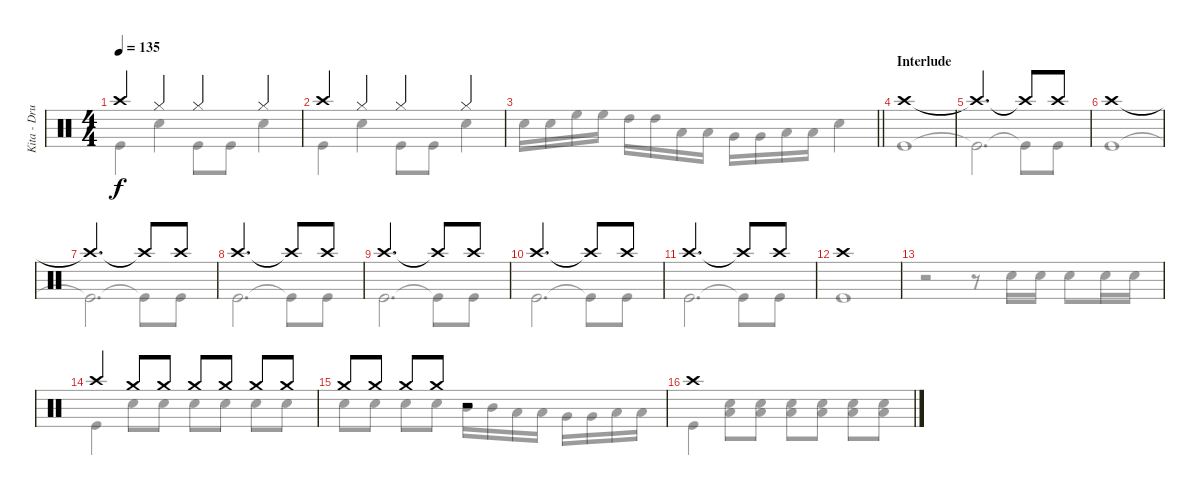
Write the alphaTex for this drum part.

\track ("Kita - Drums" "Kita - Dru") {instrument percussion}
\staff {score}
\articulation defaults
\voice
\ts (4 4)
\tempo 135
\clef neutral
\ks c "Crash high (hit)".4{dy f} "Hi-Hat (closed)".4 "Hi-Hat (closed)".4 "Hi-Hat (closed)".4
|
"Crash high (hit)".4 "Hi-Hat (closed)".4 "Hi-Hat (closed)".4 "Hi-Hat (closed)".4 |
\barLineRight lightlight
|
\section ("" "Interlude")
"Crash high (hit)".1 |
"Crash high (hit)"{t}.2{d} "Crash high (hit)"{t}.8 "Crash high (hit)".8 |
"Crash high (hit)".1 |
"Crash high (hit)"{t}.2{d} "Crash high (hit)"{t}.8 "Crash high (hit)".8 |
"Crash high (hit)".2{d} "Crash high (hit)"{t}.8 "Crash high (hit)".8 |
"Crash high (hit)".2{d} "Crash high (hit)"{t}.8 "Crash high (hit)".8 |
"Crash high (hit)".2{d} "Crash high (hit)"{t}.8 "Crash high (hit)".8 |
"Crash high (hit)".2{d} "Crash high (hit)"{t}.8 "Crash high (hit)".8 |
"Crash high (hit)".1 |
|
"Crash high (hit)".4 "Crash medium (hit)".8{volume 7} "Crash medium (hit)".8{volume 13} "Crash medium (hit)".8 "Crash medium (hit)".8 "Crash medium (hit)".8 "Crash medium (hit)".8 |
"Crash medium (hit)".8 "Crash medium (hit)".8 "Crash medium (hit)".8 "Crash medium (hit)".8 r.2{volume 8} |
"Crash high (hit)".1{volume 13}
\voice
\clef neutral
\ottava regular
\simile none
\ks c "Kick (hit)".4{dy f} "Snare (hit) 2".4 "Kick (hit)".8 "Kick (hit)".8 "Snare (hit) 2".4
|
"Kick (hit)".4 "Snare (hit) 2".4 "Kick (hit)".8 "Kick (hit)".8 "Snare (hit) 2".4 |
\barLineRight lightlight "Snare (hit) 2".16 "Snare (hit) 2".16 "High Floor Tom (hit)".16 "High Floor Tom (hit)".16 "High Tom (hit)".16 "High Tom (hit)".16 "Low Tom (hit)".16 "Low Tom (hit)".16 "Very Low Tom (hit)".16 "Very Low Tom (hit)".16 "Low Floor Tom (hit)".16 "Low Floor Tom (hit)".16 "Snare (hit) 2".4
|
"Kick (hit)".1 |
"Kick (hit)"{t}.2{d} "Kick (hit)"{t}.8 "Kick (hit)".8 |
"Kick (hit)".1 |
"Kick (hit)"{t}.2{d} "Kick (hit)"{t}.8 "Kick (hit)".8 |
"Kick (hit)".2{d} "Kick (hit)"{t}.8 "Kick (hit)".8 |
"Kick (hit)".2{d} "Kick (hit)"{t}.8 "Kick (hit)".8 |
"Kick (hit)".2{d} "Kick (hit)"{t}.8 "Kick (hit)".8 |
"Kick (hit)".2{d} "Kick (hit)"{t}.8 "Kick (hit)".8 |
"Kick (hit)".1 |
r.2 r.8 "Snare (hit) 2".16 "Snare (hit) 2".16 "Snare (hit) 2".8 "Snare (hit) 2".16 "Snare (hit) 2".16 |
"Kick (hit)".4 "Snare (hit) 2".8 "Snare (hit) 2".8 "Snare (hit) 2".8 "Snare (hit) 2".8 "Snare (hit) 2".8 "Snare (hit) 2".8 |
"Snare (hit) 2".8 "Snare (hit) 2".8 "Snare (hit) 2".8 "Snare (hit) 2".8 "Mid Tom (hit)".16 "Mid Tom (hit)".16 "Low Tom (hit)".16 "Low Tom (hit)".16 "Very Low Tom (hit)".16 "Very Low Tom (hit)".16 "Low Floor Tom (hit)".16 "Low Floor Tom (hit)".16 |
"Kick (hit)".4 ("Snare (hit) 2" "Low Floor Tom (hit)").8 ("Snare (hit) 2" "Low Floor Tom (hit)").8 ("Snare (hit) 2" "Low Floor Tom (hit)").8 ("Snare (hit) 2" "Low Floor Tom (hit)").8 ("Snare (hit) 2" "Low Floor Tom (hit)").8 ("Snare (hit) 2" "Low Floor Tom (hit)").8
